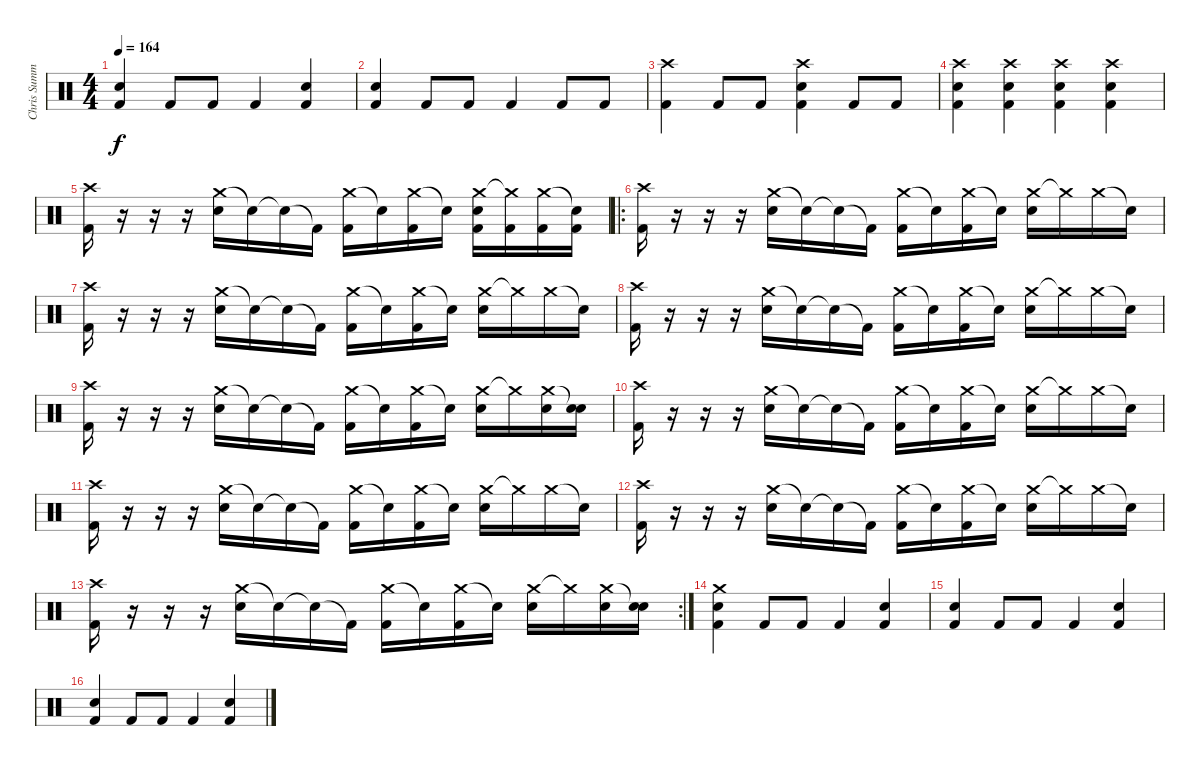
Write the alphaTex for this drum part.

\track ("Chris Summers" "Chris Summ") {instrument percussion}
\staff {score}
\articulation defaults
\ts (4 4)
\tempo 164
\clef neutral
\ks c
("Snare (hit) 2" "Kick (hit) 2").4{dy f} "Kick (hit) 2".8 "Kick (hit) 2".8 "Kick (hit) 2".4 ("Snare (hit) 2" "Kick (hit) 2").4 |
("Snare (hit) 2" "Kick (hit) 2").4 "Kick (hit) 2".8 "Kick (hit) 2".8 "Kick (hit) 2".4 "Kick (hit) 2".8 "Kick (hit) 2".8 |
("Crash high (hit)" "Kick (hit) 2").4 "Kick (hit) 2".8 "Kick (hit) 2".8 ("Crash high (hit)" "Snare (hit) 2" "Kick (hit) 2").4 "Kick (hit) 2".8 "Kick (hit) 2".8 |
("Crash high (hit)" "Snare (hit) 2" "Kick (hit) 2").4 ("Crash high (hit)" "Snare (hit) 2" "Kick (hit) 2").4 ("Crash high (hit)" "Snare (hit) 2" "Kick (hit) 2").4 ("Crash high (hit)" "Snare (hit) 2" "Kick (hit) 2").4 |
("Crash high (hit)" "Kick (hit) 2").16 r.16 r.16 r.16 ("Crash medium (hit)" "Snare (hit) 2").16 "Snare (hit)"{t}.16 "Snare (hit)"{t}.16 "Kick (hit) 2"{t}.16 ("Crash medium (hit)" "Kick (hit) 2").16 "Snare (hit)"{t}.16 ("Crash medium (hit)" "Kick (hit) 2").16 "Snare (hit)"{t}.16 ("Crash medium (hit)" "Snare (hit) 2" "Kick (hit) 2").16 ("Crash medium (hit)"{t} "Kick (hit) 2").16 ("Crash medium (hit)" "Kick (hit) 2").16 ("Snare (hit)"{t} "Kick (hit) 2").16 |
\ro
("Crash high (hit)" "Kick (hit) 2").16 r.16 r.16 r.16 ("Crash medium (hit)" "Snare (hit) 2").16 "Snare (hit)"{t}.16 "Snare (hit)"{t}.16 "Kick (hit) 2"{t}.16 ("Crash medium (hit)" "Kick (hit) 2").16 "Snare (hit)"{t}.16 ("Crash medium (hit)" "Kick (hit) 2").16 "Snare (hit)"{t}.16 ("Crash medium (hit)" "Snare (hit) 2").16 "Crash medium (hit)"{t}.16 "Crash medium (hit)".16 "Snare (hit)"{t}.16 |
("Crash high (hit)" "Kick (hit) 2").16 r.16 r.16 r.16 ("Crash medium (hit)" "Snare (hit) 2").16 "Snare (hit)"{t}.16 "Snare (hit)"{t}.16 "Kick (hit) 2"{t}.16 ("Crash medium (hit)" "Kick (hit) 2").16 "Snare (hit)"{t}.16 ("Crash medium (hit)" "Kick (hit) 2").16 "Snare (hit)"{t}.16 ("Crash medium (hit)" "Snare (hit) 2").16 "Crash medium (hit)"{t}.16 "Crash medium (hit)".16 "Snare (hit)"{t}.16 |
("Crash high (hit)" "Kick (hit) 2").16 r.16 r.16 r.16 ("Crash medium (hit)" "Snare (hit) 2").16 "Snare (hit)"{t}.16 "Snare (hit)"{t}.16 "Kick (hit) 2"{t}.16 ("Crash medium (hit)" "Kick (hit) 2").16 "Snare (hit)"{t}.16 ("Crash medium (hit)" "Kick (hit) 2").16 "Snare (hit)"{t}.16 ("Crash medium (hit)" "Snare (hit) 2").16 "Crash medium (hit)"{t}.16 "Crash medium (hit)".16 "Snare (hit)"{t}.16 |
("Crash high (hit)" "Kick (hit) 2").16 r.16 r.16 r.16 ("Crash medium (hit)" "Snare (hit) 2").16 "Snare (hit)"{t}.16 "Snare (hit)"{t}.16 "Kick (hit) 2"{t}.16 ("Crash medium (hit)" "Kick (hit) 2").16 "Snare (hit)"{t}.16 ("Crash medium (hit)" "Kick (hit) 2").16 "Snare (hit)"{t}.16 ("Crash medium (hit)" "Snare (hit) 2").16 "Crash medium (hit)"{t}.16 ("Crash medium (hit)" "Snare (hit) 2").16 ("Snare (hit)"{t} "Snare (hit) 2").16 |
("Crash high (hit)" "Kick (hit) 2").16 r.16 r.16 r.16 ("Crash medium (hit)" "Snare (hit) 2").16 "Snare (hit)"{t}.16 "Snare (hit)"{t}.16 "Kick (hit) 2"{t}.16 ("Crash medium (hit)" "Kick (hit) 2").16 "Snare (hit)"{t}.16 ("Crash medium (hit)" "Kick (hit) 2").16 "Snare (hit)"{t}.16 ("Crash medium (hit)" "Snare (hit) 2").16 "Crash medium (hit)"{t}.16 "Crash medium (hit)".16 "Snare (hit)"{t}.16 |
("Crash high (hit)" "Kick (hit) 2").16 r.16 r.16 r.16 ("Crash medium (hit)" "Snare (hit) 2").16 "Snare (hit)"{t}.16 "Snare (hit)"{t}.16 "Kick (hit) 2"{t}.16 ("Crash medium (hit)" "Kick (hit) 2").16 "Snare (hit)"{t}.16 ("Crash medium (hit)" "Kick (hit) 2").16 "Snare (hit)"{t}.16 ("Crash medium (hit)" "Snare (hit) 2").16 "Crash medium (hit)"{t}.16 "Crash medium (hit)".16 "Snare (hit)"{t}.16 |
("Crash high (hit)" "Kick (hit) 2").16 r.16 r.16 r.16 ("Crash medium (hit)" "Snare (hit) 2").16 "Snare (hit)"{t}.16 "Snare (hit)"{t}.16 "Kick (hit) 2"{t}.16 ("Crash medium (hit)" "Kick (hit) 2").16 "Snare (hit)"{t}.16 ("Crash medium (hit)" "Kick (hit) 2").16 "Snare (hit)"{t}.16 ("Crash medium (hit)" "Snare (hit) 2").16 "Crash medium (hit)"{t}.16 "Crash medium (hit)".16 "Snare (hit)"{t}.16 |
\rc 2
("Crash high (hit)" "Kick (hit) 2").16 r.16 r.16 r.16 ("Crash medium (hit)" "Snare (hit) 2").16 "Snare (hit)"{t}.16 "Snare (hit)"{t}.16 "Kick (hit) 2"{t}.16 ("Crash medium (hit)" "Kick (hit) 2").16 "Snare (hit)"{t}.16 ("Crash medium (hit)" "Kick (hit) 2").16 "Snare (hit)"{t}.16 ("Crash medium (hit)" "Snare (hit) 2").16 "Crash medium (hit)"{t}.16 ("Crash medium (hit)" "Snare (hit) 2").16 ("Snare (hit)"{t} "Snare (hit) 2").16 |
("Crash medium (hit)" "Snare (hit) 2" "Kick (hit) 2").4 "Kick (hit) 2".8 "Kick (hit) 2".8 "Kick (hit) 2".4 ("Snare (hit) 2" "Kick (hit) 2").4 |
("Snare (hit) 2" "Kick (hit) 2").4 "Kick (hit) 2".8 "Kick (hit) 2".8 "Kick (hit) 2".4 ("Snare (hit) 2" "Kick (hit) 2").4 |
("Snare (hit) 2" "Kick (hit) 2").4 "Kick (hit) 2".8 "Kick (hit) 2".8 "Kick (hit) 2".4 ("Snare (hit) 2" "Kick (hit) 2").4
